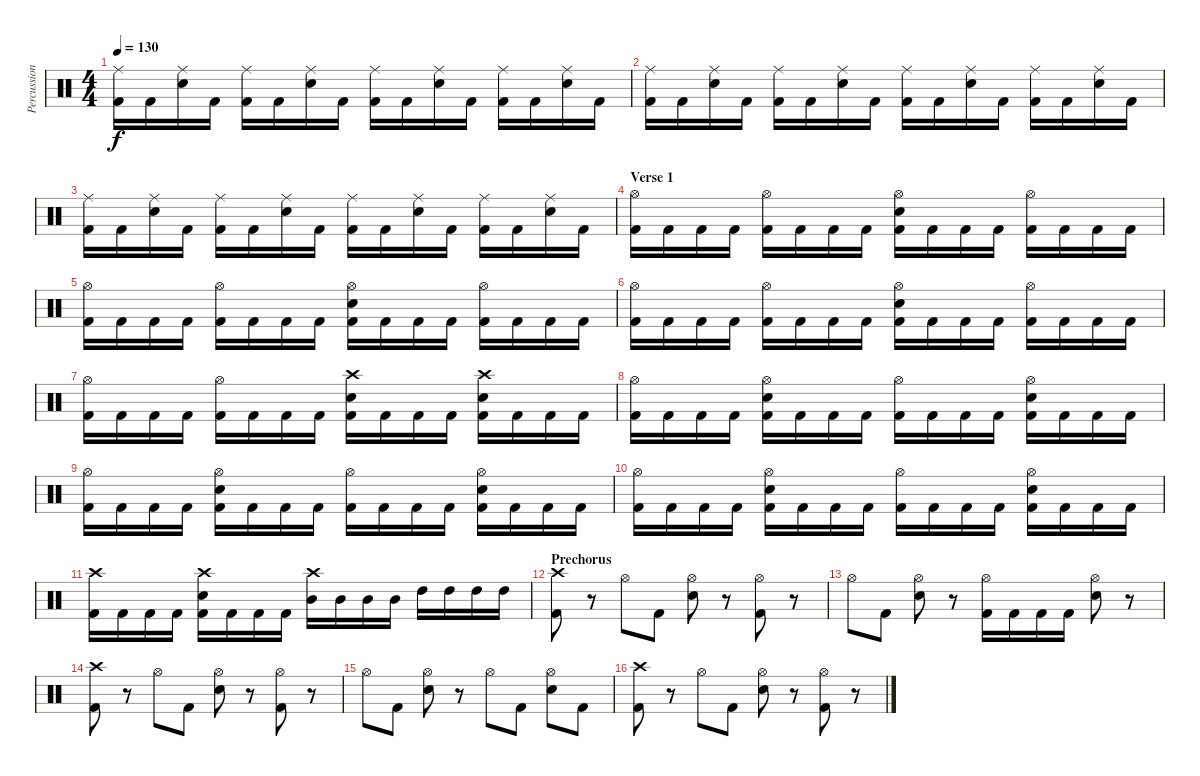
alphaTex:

\track ("Percussion" "Percussion") {instrument percussion}
\staff {score}
\articulation defaults
\ts (4 4)
\tempo 130
\clef neutral
\ks c
("Ride (middle)" "Kick (hit) 2").16{dy f} "Kick (hit) 2".16 ("Ride (middle)" "Snare (hit) 2").16 "Kick (hit) 2".16 ("Ride (middle)" "Kick (hit) 2").16 "Kick (hit) 2".16 ("Ride (middle)" "Snare (hit) 2").16 "Kick (hit) 2".16 ("Ride (middle)" "Kick (hit) 2").16 "Kick (hit) 2".16 ("Ride (middle)" "Snare (hit) 2").16 "Kick (hit) 2".16 ("Ride (middle)" "Kick (hit) 2").16 "Kick (hit) 2".16 ("Ride (middle)" "Snare (hit) 2").16 "Kick (hit) 2".16 |
("Ride (middle)" "Kick (hit) 2").16 "Kick (hit) 2".16 ("Ride (middle)" "Snare (hit) 2").16 "Kick (hit) 2".16 ("Ride (middle)" "Kick (hit) 2").16 "Kick (hit) 2".16 ("Ride (middle)" "Snare (hit) 2").16 "Kick (hit) 2".16 ("Ride (middle)" "Kick (hit) 2").16 "Kick (hit) 2".16 ("Ride (middle)" "Snare (hit) 2").16 "Kick (hit) 2".16 ("Ride (middle)" "Kick (hit) 2").16 "Kick (hit) 2".16 ("Ride (middle)" "Snare (hit) 2").16 "Kick (hit) 2".16 |
("Ride (middle)" "Kick (hit) 2").16 "Kick (hit) 2".16 ("Ride (middle)" "Snare (hit) 2").16 "Kick (hit) 2".16 ("Ride (middle)" "Kick (hit) 2").16 "Kick (hit) 2".16 ("Ride (middle)" "Snare (hit) 2").16 "Kick (hit) 2".16 ("Ride (middle)" "Kick (hit) 2").16 "Kick (hit) 2".16 ("Ride (middle)" "Snare (hit) 2").16 "Kick (hit) 2".16 ("Ride (middle)" "Kick (hit) 2").16 "Kick (hit) 2".16 ("Ride (middle)" "Snare (hit) 2").16 "Kick (hit) 2".16 |
\section ("" "Verse 1")
("Hi-Hat (open)" "Kick (hit) 2").16 "Kick (hit) 2".16 "Kick (hit) 2".16 "Kick (hit) 2".16 ("Hi-Hat (open)" "Kick (hit) 2").16 "Kick (hit) 2".16 "Kick (hit) 2".16 "Kick (hit) 2".16 ("Hi-Hat (open)" "Snare (hit) 2" "Kick (hit) 2").16 "Kick (hit) 2".16 "Kick (hit) 2".16 "Kick (hit) 2".16 ("Hi-Hat (open)" "Kick (hit) 2").16 "Kick (hit) 2".16 "Kick (hit) 2".16 "Kick (hit) 2".16 |
("Hi-Hat (open)" "Kick (hit) 2").16 "Kick (hit) 2".16 "Kick (hit) 2".16 "Kick (hit) 2".16 ("Hi-Hat (open)" "Kick (hit) 2").16 "Kick (hit) 2".16 "Kick (hit) 2".16 "Kick (hit) 2".16 ("Hi-Hat (open)" "Snare (hit) 2" "Kick (hit) 2").16 "Kick (hit) 2".16 "Kick (hit) 2".16 "Kick (hit) 2".16 ("Hi-Hat (open)" "Kick (hit) 2").16 "Kick (hit) 2".16 "Kick (hit) 2".16 "Kick (hit) 2".16 |
("Hi-Hat (open)" "Kick (hit) 2").16 "Kick (hit) 2".16 "Kick (hit) 2".16 "Kick (hit) 2".16 ("Hi-Hat (open)" "Kick (hit) 2").16 "Kick (hit) 2".16 "Kick (hit) 2".16 "Kick (hit) 2".16 ("Hi-Hat (open)" "Snare (hit) 2" "Kick (hit) 2").16 "Kick (hit) 2".16 "Kick (hit) 2".16 "Kick (hit) 2".16 ("Hi-Hat (open)" "Kick (hit) 2").16 "Kick (hit) 2".16 "Kick (hit) 2".16 "Kick (hit) 2".16 |
("Hi-Hat (open)" "Kick (hit) 2").16 "Kick (hit) 2".16 "Kick (hit) 2".16 "Kick (hit) 2".16 ("Hi-Hat (open)" "Kick (hit) 2").16 "Kick (hit) 2".16 "Kick (hit) 2".16 "Kick (hit) 2".16 ("Crash high (hit)" "Snare (hit) 2" "Kick (hit) 2").16 "Kick (hit) 2".16 "Kick (hit) 2".16 "Kick (hit) 2".16 ("Crash high (hit)" "Snare (hit) 2" "Kick (hit) 2").16 "Kick (hit) 2".16 "Kick (hit) 2".16 "Kick (hit) 2".16 |
("Hi-Hat (open)" "Kick (hit) 2").16 "Kick (hit) 2".16 "Kick (hit) 2".16 "Kick (hit) 2".16 ("Hi-Hat (open)" "Snare (hit) 2" "Kick (hit) 2").16 "Kick (hit) 2".16 "Kick (hit) 2".16 "Kick (hit) 2".16 ("Hi-Hat (open)" "Kick (hit) 2").16 "Kick (hit) 2".16 "Kick (hit) 2".16 "Kick (hit) 2".16 ("Hi-Hat (open)" "Snare (hit) 2" "Kick (hit) 2").16 "Kick (hit) 2".16 "Kick (hit) 2".16 "Kick (hit) 2".16 |
("Hi-Hat (open)" "Kick (hit) 2").16 "Kick (hit) 2".16 "Kick (hit) 2".16 "Kick (hit) 2".16 ("Hi-Hat (open)" "Snare (hit) 2" "Kick (hit) 2").16 "Kick (hit) 2".16 "Kick (hit) 2".16 "Kick (hit) 2".16 ("Hi-Hat (open)" "Kick (hit) 2").16 "Kick (hit) 2".16 "Kick (hit) 2".16 "Kick (hit) 2".16 ("Hi-Hat (open)" "Snare (hit) 2" "Kick (hit) 2").16 "Kick (hit) 2".16 "Kick (hit) 2".16 "Kick (hit) 2".16 |
("Hi-Hat (open)" "Kick (hit) 2").16 "Kick (hit) 2".16 "Kick (hit) 2".16 "Kick (hit) 2".16 ("Hi-Hat (open)" "Snare (hit) 2" "Kick (hit) 2").16 "Kick (hit) 2".16 "Kick (hit) 2".16 "Kick (hit) 2".16 ("Hi-Hat (open)" "Kick (hit) 2").16 "Kick (hit) 2".16 "Kick (hit) 2".16 "Kick (hit) 2".16 ("Hi-Hat (open)" "Snare (hit) 2" "Kick (hit) 2").16 "Kick (hit) 2".16 "Kick (hit) 2".16 "Kick (hit) 2".16 |
("Crash high (hit)" "Kick (hit) 2").16 "Kick (hit) 2".16 "Kick (hit) 2".16 "Kick (hit) 2".16 ("Crash high (hit)" "Snare (hit) 2" "Kick (hit) 2").16 "Kick (hit) 2".16 "Kick (hit) 2".16 "Kick (hit) 2".16 ("Crash high (hit)" "Mid Tom (hit)").16 "Mid Tom (hit)".16 "Mid Tom (hit)".16 "Mid Tom (hit)".16 "High Tom (hit)".16 "High Tom (hit)".16 "High Tom (hit)".16 "High Tom (hit)".16 |
\section ("" "Prechorus")
("Crash high (hit)" "Kick (hit) 2").8 r.8 "Hi-Hat (open)".8 "Kick (hit) 2".8 ("Hi-Hat (open)" "Snare (hit) 2").8 r.8 ("Hi-Hat (open)" "Kick (hit) 2").8 r.8 |
"Hi-Hat (open)".8 "Kick (hit) 2".8 ("Hi-Hat (open)" "Snare (hit) 2").8 r.8 ("Hi-Hat (open)" "Kick (hit) 2").16 "Kick (hit) 2".16 "Kick (hit) 2".16 "Kick (hit) 2".16 ("Hi-Hat (open)" "Snare (hit) 2").8 r.8 |
("Crash high (hit)" "Kick (hit) 2").8 r.8 "Hi-Hat (open)".8 "Kick (hit) 2".8 ("Hi-Hat (open)" "Snare (hit) 2").8 r.8 ("Hi-Hat (open)" "Kick (hit) 2").8 r.8 |
"Hi-Hat (open)".8 "Kick (hit) 2".8 ("Hi-Hat (open)" "Snare (hit) 2").8 r.8 "Hi-Hat (open)".8 "Kick (hit) 2".8 ("Hi-Hat (open)" "Snare (hit) 2").8 "Kick (hit) 2".8 |
("Crash high (hit)" "Kick (hit) 2").8 r.8 "Hi-Hat (open)".8 "Kick (hit) 2".8 ("Hi-Hat (open)" "Snare (hit) 2").8 r.8 ("Hi-Hat (open)" "Kick (hit) 2").8 r.8
